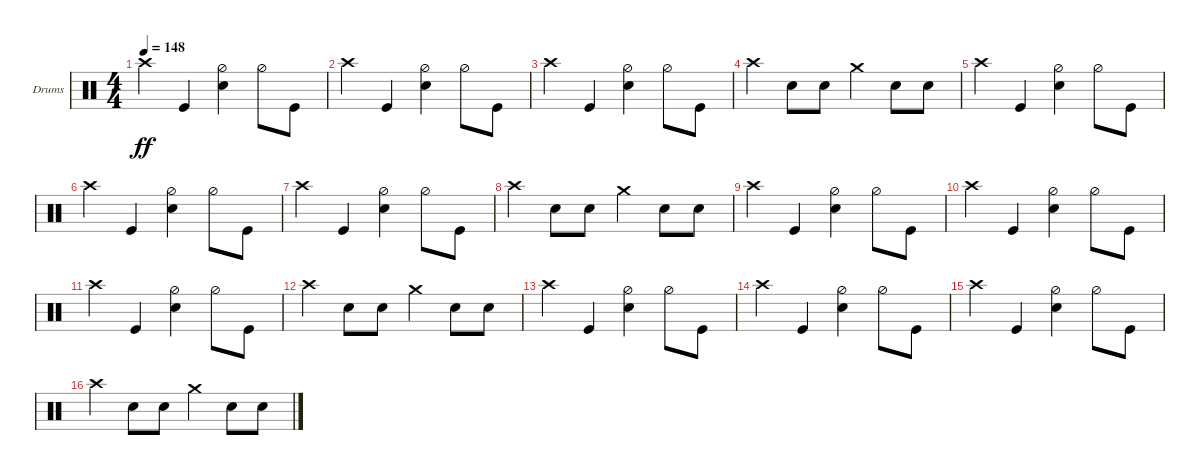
\defaultSystemsLayout 4
\bracketExtendMode groupsimilarinstruments
\firstSystemTrackNameOrientation horizontal
\otherSystemsTrackNameOrientation horizontal
\track ("Drumkit" "Drums") {instrument percussion}
\staff {score}
\articulation defaults
\ts (4 4)
\tempo 148
\clef neutral
\scale
0.333333
\ks c "Crash high (hit)".4{dy ff} "Kick (hit)".4
("Hi-Hat (half)" "Snare (hit) 2").4 "Hi-Hat (half)".8 "Kick (hit)".8 |
\scale
0.333333 "Crash high (hit)".4 "Kick (hit)".4 ("Hi-Hat (half)" "Snare (hit) 2").4 "Hi-Hat (half)".8 "Kick (hit)".8 |
\scale
0.333333 "Crash high (hit)".4 "Kick (hit)".4 ("Hi-Hat (half)" "Snare (hit) 2").4 "Hi-Hat (half)".8 "Kick (hit)".8 |
\scale
0.333333 "Crash high (hit)".4 "Snare (hit) 2".8 "Snare (hit) 2".8 "Crash medium (hit)".4 "Snare (hit) 2".8 "Snare (hit) 2".8 |
\scale
0.333333 "Crash high (hit)".4 "Kick (hit)".4 ("Hi-Hat (half)" "Snare (hit) 2").4 "Hi-Hat (half)".8 "Kick (hit)".8 |
\scale
0.333333 "Crash high (hit)".4 "Kick (hit)".4 ("Hi-Hat (half)" "Snare (hit) 2").4 "Hi-Hat (half)".8 "Kick (hit)".8 |
\scale
0.333333 "Crash high (hit)".4 "Kick (hit)".4 ("Hi-Hat (half)" "Snare (hit) 2").4 "Hi-Hat (half)".8 "Kick (hit)".8 |
\scale
0.333333 "Crash high (hit)".4 "Snare (hit) 2".8 "Snare (hit) 2".8 "Crash medium (hit)".4 "Snare (hit) 2".8 "Snare (hit) 2".8 |
"Crash high (hit)".4 "Kick (hit)".4 ("Hi-Hat (half)" "Snare (hit) 2").4 "Hi-Hat (half)".8 "Kick (hit)".8 |
"Crash high (hit)".4 "Kick (hit)".4 ("Hi-Hat (half)" "Snare (hit) 2").4 "Hi-Hat (half)".8 "Kick (hit)".8 |
"Crash high (hit)".4 "Kick (hit)".4 ("Hi-Hat (half)" "Snare (hit) 2").4 "Hi-Hat (half)".8 "Kick (hit)".8 |
"Crash high (hit)".4 "Snare (hit) 2".8 "Snare (hit) 2".8 "Crash medium (hit)".4 "Snare (hit) 2".8 "Snare (hit) 2".8 |
"Crash high (hit)".4 "Kick (hit)".4 ("Hi-Hat (half)" "Snare (hit) 2").4 "Hi-Hat (half)".8 "Kick (hit)".8 |
"Crash high (hit)".4 "Kick (hit)".4 ("Hi-Hat (half)" "Snare (hit) 2").4 "Hi-Hat (half)".8 "Kick (hit)".8 |
"Crash high (hit)".4 "Kick (hit)".4 ("Hi-Hat (half)" "Snare (hit) 2").4 "Hi-Hat (half)".8 "Kick (hit)".8 |
"Crash high (hit)".4 "Snare (hit) 2".8 "Snare (hit) 2".8 "Crash medium (hit)".4 "Snare (hit) 2".8 "Snare (hit) 2".8
